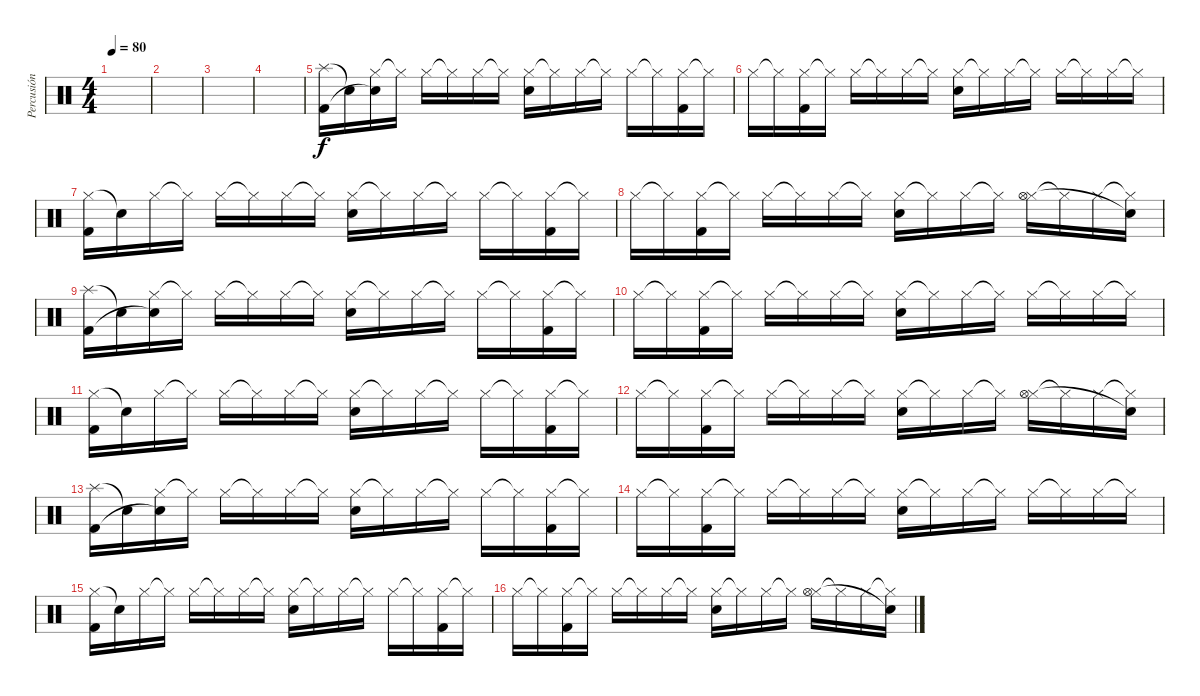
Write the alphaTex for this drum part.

\track ("Percusión" "Percusión") {instrument percussion}
\staff {score}
\articulation defaults
\ts (4 4)
\tempo 80
\clef neutral
\ks c
|
|
|
|
("Splash (hit)" "Kick (hit) 2").16 "Snare (hit)"{t}.16 ("Hi-Hat (closed)" "Snare (hit)"{t}).16 "Hi-Hat (closed)"{t}.16 "Hi-Hat (closed)".16 "Hi-Hat (closed)"{t}.16 "Hi-Hat (closed)".16 "Hi-Hat (closed)"{t}.16 ("Hi-Hat (closed)" "Snare (hit) 2").16 "Hi-Hat (closed)"{t}.16 "Hi-Hat (closed)".16 "Hi-Hat (closed)"{t}.16 "Hi-Hat (closed)".16 "Hi-Hat (closed)"{t}.16 ("Hi-Hat (closed)" "Kick (hit) 2").16 "Hi-Hat (closed)"{t}.16 |
"Hi-Hat (closed)".16 "Hi-Hat (closed)"{t}.16 ("Hi-Hat (closed)" "Kick (hit) 2").16 "Hi-Hat (closed)"{t}.16 "Hi-Hat (closed)".16 "Hi-Hat (closed)"{t}.16 "Hi-Hat (closed)".16 "Hi-Hat (closed)"{t}.16 ("Hi-Hat (closed)" "Snare (hit) 2").16 "Hi-Hat (closed)"{t}.16 "Hi-Hat (closed)".16 "Hi-Hat (closed)"{t}.16 "Hi-Hat (closed)".16 "Hi-Hat (closed)"{t}.16 "Hi-Hat (closed)".16 "Hi-Hat (closed)"{t}.16 |
("Hi-Hat (closed)" "Kick (hit) 2").16 "Snare (hit)"{t}.16 "Hi-Hat (closed)".16 "Hi-Hat (closed)"{t}.16 "Hi-Hat (closed)".16 "Hi-Hat (closed)"{t}.16 "Hi-Hat (closed)".16 "Hi-Hat (closed)"{t}.16 ("Hi-Hat (closed)" "Snare (hit) 2").16 "Hi-Hat (closed)"{t}.16 "Hi-Hat (closed)".16 "Hi-Hat (closed)"{t}.16 "Hi-Hat (closed)".16 "Hi-Hat (closed)"{t}.16 ("Hi-Hat (closed)" "Kick (hit) 2").16 "Hi-Hat (closed)"{t}.16 |
"Hi-Hat (closed)".16 "Hi-Hat (closed)"{t}.16 ("Hi-Hat (closed)" "Kick (hit) 2").16 "Hi-Hat (closed)"{t}.16 "Hi-Hat (closed)".16 "Hi-Hat (closed)"{t}.16 "Hi-Hat (closed)".16 "Hi-Hat (closed)"{t}.16 ("Hi-Hat (closed)" "Snare (hit) 2").16 "Hi-Hat (closed)"{t}.16 "Hi-Hat (closed)".16 "Hi-Hat (closed)"{t}.16 ("Hi-Hat (closed)" "Hi-Hat (open)").16 "Hi-Hat (closed)"{t}.16 "Hi-Hat (closed)".16 ("Hi-Hat (closed)"{t} "Snare (hit)"{t}).16 |
("Splash (hit)" "Kick (hit) 2").16 "Snare (hit)"{t}.16 ("Hi-Hat (closed)" "Snare (hit)"{t}).16 "Hi-Hat (closed)"{t}.16 "Hi-Hat (closed)".16 "Hi-Hat (closed)"{t}.16 "Hi-Hat (closed)".16 "Hi-Hat (closed)"{t}.16 ("Hi-Hat (closed)" "Snare (hit) 2").16 "Hi-Hat (closed)"{t}.16 "Hi-Hat (closed)".16 "Hi-Hat (closed)"{t}.16 "Hi-Hat (closed)".16 "Hi-Hat (closed)"{t}.16 ("Hi-Hat (closed)" "Kick (hit) 2").16 "Hi-Hat (closed)"{t}.16 |
"Hi-Hat (closed)".16 "Hi-Hat (closed)"{t}.16 ("Hi-Hat (closed)" "Kick (hit) 2").16 "Hi-Hat (closed)"{t}.16 "Hi-Hat (closed)".16 "Hi-Hat (closed)"{t}.16 "Hi-Hat (closed)".16 "Hi-Hat (closed)"{t}.16 ("Hi-Hat (closed)" "Snare (hit) 2").16 "Hi-Hat (closed)"{t}.16 "Hi-Hat (closed)".16 "Hi-Hat (closed)"{t}.16 "Hi-Hat (closed)".16 "Hi-Hat (closed)"{t}.16 "Hi-Hat (closed)".16 "Hi-Hat (closed)"{t}.16 |
("Hi-Hat (closed)" "Kick (hit) 2").16 "Snare (hit)"{t}.16 "Hi-Hat (closed)".16 "Hi-Hat (closed)"{t}.16 "Hi-Hat (closed)".16 "Hi-Hat (closed)"{t}.16 "Hi-Hat (closed)".16 "Hi-Hat (closed)"{t}.16 ("Hi-Hat (closed)" "Snare (hit) 2").16 "Hi-Hat (closed)"{t}.16 "Hi-Hat (closed)".16 "Hi-Hat (closed)"{t}.16 "Hi-Hat (closed)".16 "Hi-Hat (closed)"{t}.16 ("Hi-Hat (closed)" "Kick (hit) 2").16 "Hi-Hat (closed)"{t}.16 |
"Hi-Hat (closed)".16 "Hi-Hat (closed)"{t}.16 ("Hi-Hat (closed)" "Kick (hit) 2").16 "Hi-Hat (closed)"{t}.16 "Hi-Hat (closed)".16 "Hi-Hat (closed)"{t}.16 "Hi-Hat (closed)".16 "Hi-Hat (closed)"{t}.16 ("Hi-Hat (closed)" "Snare (hit) 2").16 "Hi-Hat (closed)"{t}.16 "Hi-Hat (closed)".16 "Hi-Hat (closed)"{t}.16 ("Hi-Hat (closed)" "Hi-Hat (open)").16 "Hi-Hat (closed)"{t}.16 "Hi-Hat (closed)".16 ("Hi-Hat (closed)"{t} "Snare (hit)"{t}).16 |
("Splash (hit)" "Kick (hit) 2").16 "Snare (hit)"{t}.16 ("Hi-Hat (closed)" "Snare (hit)"{t}).16 "Hi-Hat (closed)"{t}.16 "Hi-Hat (closed)".16 "Hi-Hat (closed)"{t}.16 "Hi-Hat (closed)".16 "Hi-Hat (closed)"{t}.16 ("Hi-Hat (closed)" "Snare (hit) 2").16 "Hi-Hat (closed)"{t}.16 "Hi-Hat (closed)".16 "Hi-Hat (closed)"{t}.16 "Hi-Hat (closed)".16 "Hi-Hat (closed)"{t}.16 ("Hi-Hat (closed)" "Kick (hit) 2").16 "Hi-Hat (closed)"{t}.16 |
"Hi-Hat (closed)".16 "Hi-Hat (closed)"{t}.16 ("Hi-Hat (closed)" "Kick (hit) 2").16 "Hi-Hat (closed)"{t}.16 "Hi-Hat (closed)".16 "Hi-Hat (closed)"{t}.16 "Hi-Hat (closed)".16 "Hi-Hat (closed)"{t}.16 ("Hi-Hat (closed)" "Snare (hit) 2").16 "Hi-Hat (closed)"{t}.16 "Hi-Hat (closed)".16 "Hi-Hat (closed)"{t}.16 "Hi-Hat (closed)".16 "Hi-Hat (closed)"{t}.16 "Hi-Hat (closed)".16 "Hi-Hat (closed)"{t}.16 |
("Hi-Hat (closed)" "Kick (hit) 2").16 "Snare (hit)"{t}.16 "Hi-Hat (closed)".16 "Hi-Hat (closed)"{t}.16 "Hi-Hat (closed)".16 "Hi-Hat (closed)"{t}.16 "Hi-Hat (closed)".16 "Hi-Hat (closed)"{t}.16 ("Hi-Hat (closed)" "Snare (hit) 2").16 "Hi-Hat (closed)"{t}.16 "Hi-Hat (closed)".16 "Hi-Hat (closed)"{t}.16 "Hi-Hat (closed)".16 "Hi-Hat (closed)"{t}.16 ("Hi-Hat (closed)" "Kick (hit) 2").16 "Hi-Hat (closed)"{t}.16 |
"Hi-Hat (closed)".16 "Hi-Hat (closed)"{t}.16 ("Hi-Hat (closed)" "Kick (hit) 2").16 "Hi-Hat (closed)"{t}.16 "Hi-Hat (closed)".16 "Hi-Hat (closed)"{t}.16 "Hi-Hat (closed)".16 "Hi-Hat (closed)"{t}.16 ("Hi-Hat (closed)" "Snare (hit) 2").16 "Hi-Hat (closed)"{t}.16 "Hi-Hat (closed)".16 "Hi-Hat (closed)"{t}.16 ("Hi-Hat (closed)" "Hi-Hat (open)").16 "Hi-Hat (closed)"{t}.16 "Hi-Hat (closed)".16 ("Hi-Hat (closed)"{t} "Snare (hit)"{t}).16
